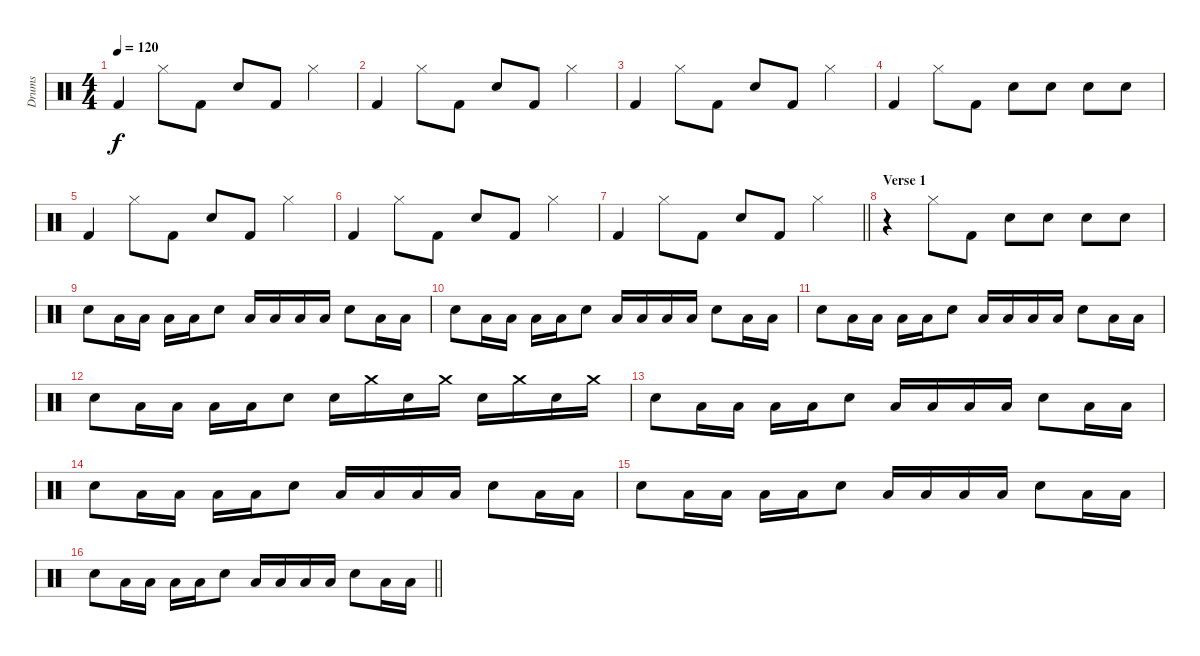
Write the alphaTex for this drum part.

\track ("Drums" "Drums") {instrument percussion}
\staff {score}
\articulation defaults
\ts (4 4)
\tempo 120
\clef neutral
\ks c "Kick (hit) 2".4{dy f} "Hi-Hat (closed)".8 "Kick (hit) 2".8 "Electric Snare (hit)".8 "Kick (hit) 2".8 "Hi-Hat (closed)".4
|
"Kick (hit) 2".4 "Hi-Hat (closed)".8 "Kick (hit) 2".8 "Electric Snare (hit)".8 "Kick (hit) 2".8 "Hi-Hat (closed)".4 |
"Kick (hit) 2".4 "Hi-Hat (closed)".8 "Kick (hit) 2".8 "Electric Snare (hit)".8 "Kick (hit) 2".8 "Hi-Hat (closed)".4 |
"Kick (hit) 2".4 "Hi-Hat (closed)".8 "Kick (hit) 2".8 "Electric Snare (hit)".8 "Electric Snare (hit)".8 "Electric Snare (hit)".8 "Electric Snare (hit)".8 |
"Kick (hit) 2".4 "Hi-Hat (closed)".8 "Kick (hit) 2".8 "Electric Snare (hit)".8 "Kick (hit) 2".8 "Hi-Hat (closed)".4 |
"Kick (hit) 2".4 "Hi-Hat (closed)".8 "Kick (hit) 2".8 "Electric Snare (hit)".8 "Kick (hit) 2".8 "Hi-Hat (closed)".4 |
\barLineRight lightlight "Kick (hit) 2".4 "Hi-Hat (closed)".8 "Kick (hit) 2".8 "Electric Snare (hit)".8 "Kick (hit) 2".8 "Hi-Hat (closed)".4
|
\section ("" "Verse 1")
r.4 "Hi-Hat (closed)".8 "Kick (hit) 2".8 "Electric Snare (hit)".8 "Electric Snare (hit)".8 "Electric Snare (hit)".8 "Electric Snare (hit)".8 |
"Electric Snare (hit)".8 "Low Tom (hit)".16 "Low Tom (hit)".16 "Low Tom (hit)".16 "Low Tom (hit)".16 "Electric Snare (hit)".8 "Low Tom (hit)".16 "Low Tom (hit)".16 "Low Tom (hit)".16 "Low Tom (hit)".16 "Electric Snare (hit)".8 "Low Tom (hit)".16 "Low Tom (hit)".16 |
"Electric Snare (hit)".8 "Low Tom (hit)".16 "Low Tom (hit)".16 "Low Tom (hit)".16 "Low Tom (hit)".16 "Electric Snare (hit)".8 "Low Tom (hit)".16 "Low Tom (hit)".16 "Low Tom (hit)".16 "Low Tom (hit)".16 "Electric Snare (hit)".8 "Low Tom (hit)".16 "Low Tom (hit)".16 |
"Electric Snare (hit)".8 "Low Tom (hit)".16 "Low Tom (hit)".16 "Low Tom (hit)".16 "Low Tom (hit)".16 "Electric Snare (hit)".8 "Low Tom (hit)".16 "Low Tom (hit)".16 "Low Tom (hit)".16 "Low Tom (hit)".16 "Electric Snare (hit)".8 "Low Tom (hit)".16 "Low Tom (hit)".16 |
"Electric Snare (hit)".8 "Low Tom (hit)".16 "Low Tom (hit)".16 "Low Tom (hit)".16 "Low Tom (hit)".16 "Electric Snare (hit)".8 "Electric Snare (hit)".16 "Crash medium (hit)".16 "Electric Snare (hit)".16 "Crash medium (hit)".16 "Electric Snare (hit)".16 "Crash medium (hit)".16 "Electric Snare (hit)".16 "Crash medium (hit)".16 |
"Electric Snare (hit)".8 "Low Tom (hit)".16 "Low Tom (hit)".16 "Low Tom (hit)".16 "Low Tom (hit)".16 "Electric Snare (hit)".8 "Low Tom (hit)".16 "Low Tom (hit)".16 "Low Tom (hit)".16 "Low Tom (hit)".16 "Electric Snare (hit)".8 "Low Tom (hit)".16 "Low Tom (hit)".16 |
"Electric Snare (hit)".8 "Low Tom (hit)".16 "Low Tom (hit)".16 "Low Tom (hit)".16 "Low Tom (hit)".16 "Electric Snare (hit)".8 "Low Tom (hit)".16 "Low Tom (hit)".16 "Low Tom (hit)".16 "Low Tom (hit)".16 "Electric Snare (hit)".8 "Low Tom (hit)".16 "Low Tom (hit)".16 |
"Electric Snare (hit)".8 "Low Tom (hit)".16 "Low Tom (hit)".16 "Low Tom (hit)".16 "Low Tom (hit)".16 "Electric Snare (hit)".8 "Low Tom (hit)".16 "Low Tom (hit)".16 "Low Tom (hit)".16 "Low Tom (hit)".16 "Electric Snare (hit)".8 "Low Tom (hit)".16 "Low Tom (hit)".16 |
\barLineRight lightlight "Electric Snare (hit)".8 "Low Tom (hit)".16 "Low Tom (hit)".16 "Low Tom (hit)".16 "Low Tom (hit)".16 "Electric Snare (hit)".8 "Low Tom (hit)".16 "Low Tom (hit)".16 "Low Tom (hit)".16 "Low Tom (hit)".16 "Electric Snare (hit)".8 "Low Tom (hit)".16 "Low Tom (hit)".16
